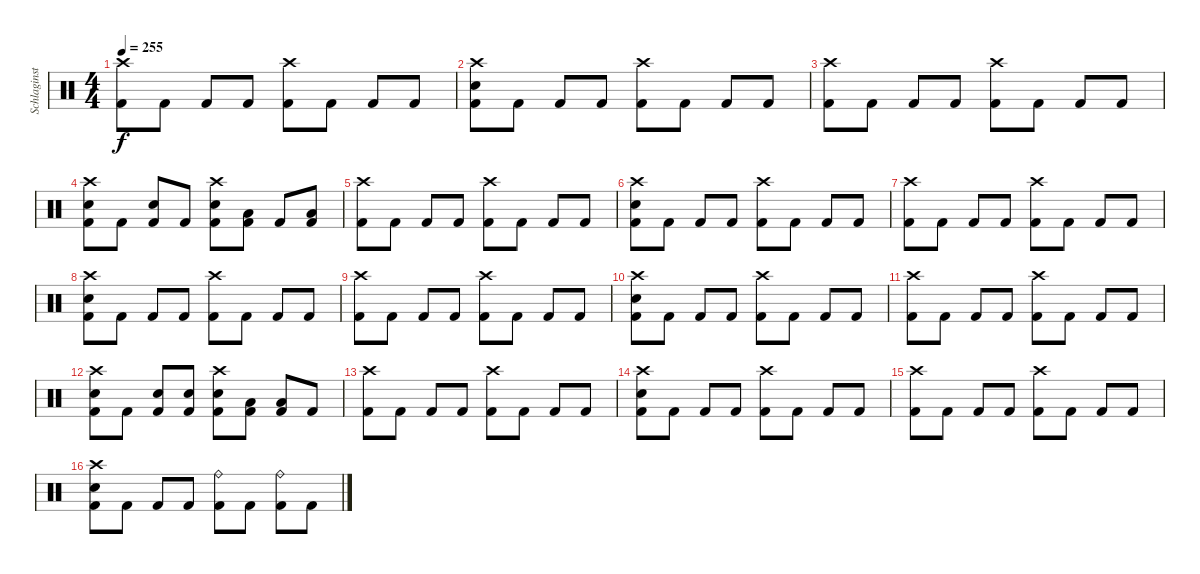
\track ("Schlaginstrumente - Auswahl" "Schlaginst") {instrument percussion}
\staff {score}
\articulation defaults
\ts (4 4)
\tempo 255
\clef neutral
\ks c
("Crash high (hit)" "Kick (hit) 2").8{dy f} "Kick (hit) 2".8 "Kick (hit) 2".8 "Kick (hit) 2".8 ("Crash high (hit)" "Kick (hit) 2").8 "Kick (hit) 2".8 "Kick (hit) 2".8 "Kick (hit) 2".8 |
("Crash high (hit)" "Electric Snare (hit)" "Kick (hit) 2").8 "Kick (hit) 2".8 "Kick (hit) 2".8 "Kick (hit) 2".8 ("Crash high (hit)" "Kick (hit) 2").8 "Kick (hit) 2".8 "Kick (hit) 2".8 "Kick (hit) 2".8 |
("Crash high (hit)" "Kick (hit) 2").8 "Kick (hit) 2".8 "Kick (hit) 2".8 "Kick (hit) 2".8 ("Crash high (hit)" "Kick (hit) 2").8 "Kick (hit) 2".8 "Kick (hit) 2".8 "Kick (hit) 2".8 |
("Crash high (hit)" "Electric Snare (hit)" "Kick (hit) 2").8 "Kick (hit) 2".8 ("Electric Snare (hit)" "Kick (hit) 2").8 "Kick (hit) 2".8 ("Crash high (hit)" "Electric Snare (hit)" "Kick (hit) 2").8 ("Low Tom (hit)" "Kick (hit) 2").8 "Kick (hit) 2".8 ("Low Tom (hit)" "Kick (hit) 2").8 |
("Crash high (hit)" "Kick (hit) 2").8 "Kick (hit) 2".8 "Kick (hit) 2".8 "Kick (hit) 2".8 ("Crash high (hit)" "Kick (hit) 2").8 "Kick (hit) 2".8 "Kick (hit) 2".8 "Kick (hit) 2".8 |
("Crash high (hit)" "Electric Snare (hit)" "Kick (hit) 2").8 "Kick (hit) 2".8 "Kick (hit) 2".8 "Kick (hit) 2".8 ("Crash high (hit)" "Kick (hit) 2").8 "Kick (hit) 2".8 "Kick (hit) 2".8 "Kick (hit) 2".8 |
("Crash high (hit)" "Kick (hit) 2").8 "Kick (hit) 2".8 "Kick (hit) 2".8 "Kick (hit) 2".8 ("Crash high (hit)" "Kick (hit) 2").8 "Kick (hit) 2".8 "Kick (hit) 2".8 "Kick (hit) 2".8 |
("Crash high (hit)" "Electric Snare (hit)" "Kick (hit) 2").8 "Kick (hit) 2".8 "Kick (hit) 2".8 "Kick (hit) 2".8 ("Crash high (hit)" "Kick (hit) 2").8 "Kick (hit) 2".8 "Kick (hit) 2".8 "Kick (hit) 2".8 |
("Crash high (hit)" "Kick (hit) 2").8 "Kick (hit) 2".8 "Kick (hit) 2".8 "Kick (hit) 2".8 ("Crash high (hit)" "Kick (hit) 2").8 "Kick (hit) 2".8 "Kick (hit) 2".8 "Kick (hit) 2".8 |
("Crash high (hit)" "Electric Snare (hit)" "Kick (hit) 2").8 "Kick (hit) 2".8 "Kick (hit) 2".8 "Kick (hit) 2".8 ("Crash high (hit)" "Kick (hit) 2").8 "Kick (hit) 2".8 "Kick (hit) 2".8 "Kick (hit) 2".8 |
("Crash high (hit)" "Kick (hit) 2").8 "Kick (hit) 2".8 "Kick (hit) 2".8 "Kick (hit) 2".8 ("Crash high (hit)" "Kick (hit) 2").8 "Kick (hit) 2".8 "Kick (hit) 2".8 "Kick (hit) 2".8 |
("Crash high (hit)" "Electric Snare (hit)" "Kick (hit) 2").8 "Kick (hit) 2".8 ("Electric Snare (hit)" "Kick (hit) 2").8 ("Electric Snare (hit)" "Kick (hit) 2").8 ("Crash high (hit)" "Electric Snare (hit)" "Kick (hit) 2").8 ("Low Tom (hit)" "Kick (hit) 2").8 ("Low Tom (hit)" "Kick (hit) 2").8 "Kick (hit) 2".8 |
("Crash high (hit)" "Kick (hit) 2").8 "Kick (hit) 2".8 "Kick (hit) 2".8 "Kick (hit) 2".8 ("Crash high (hit)" "Kick (hit) 2").8 "Kick (hit) 2".8 "Kick (hit) 2".8 "Kick (hit) 2".8 |
("Crash high (hit)" "Electric Snare (hit)" "Kick (hit) 2").8 "Kick (hit) 2".8 "Kick (hit) 2".8 "Kick (hit) 2".8 ("Crash high (hit)" "Kick (hit) 2").8 "Kick (hit) 2".8 "Kick (hit) 2".8 "Kick (hit) 2".8 |
("Crash high (hit)" "Kick (hit) 2").8 "Kick (hit) 2".8 "Kick (hit) 2".8 "Kick (hit) 2".8 ("Crash high (hit)" "Kick (hit) 2").8 "Kick (hit) 2".8 "Kick (hit) 2".8 "Kick (hit) 2".8 |
("Crash high (hit)" "Electric Snare (hit)" "Kick (hit) 2").8 "Kick (hit) 2".8 "Kick (hit) 2".8 "Kick (hit) 2".8 ("Ride (bell)" "Kick (hit) 2").8 "Kick (hit) 2".8 ("Ride (bell)" "Kick (hit) 2").8 "Kick (hit) 2".8
